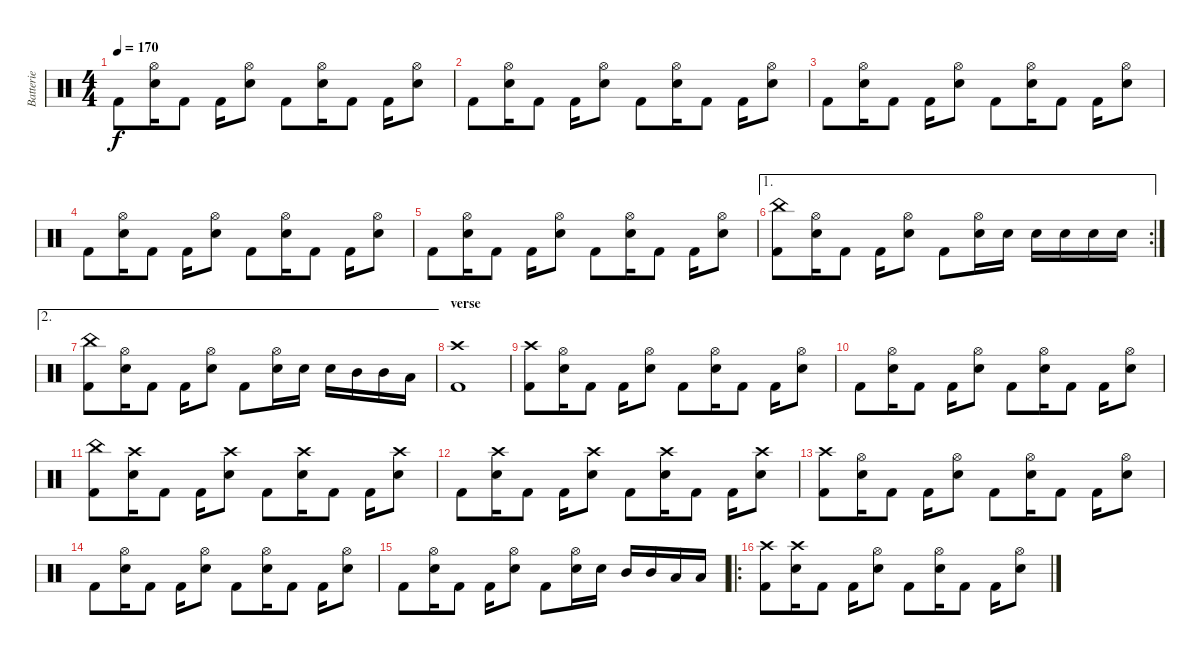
\track ("Batterie" "Batterie") {instrument percussion}
\staff {score}
\articulation defaults
\ts (4 4)
\tempo 170
\clef neutral
\ks c "Kick (hit) 2".8{dy f}
("Hi-Hat (open)" "Electric Snare (hit)").16 "Kick (hit) 2".8 "Kick (hit) 2".16 ("Hi-Hat (open)" "Electric Snare (hit)").8 "Kick (hit) 2".8 ("Hi-Hat (open)" "Electric Snare (hit)").16 "Kick (hit) 2".8 "Kick (hit) 2".16 ("Hi-Hat (open)" "Electric Snare (hit)").8 |
"Kick (hit) 2".8 ("Hi-Hat (open)" "Electric Snare (hit)").16 "Kick (hit) 2".8 "Kick (hit) 2".16 ("Hi-Hat (open)" "Electric Snare (hit)").8 "Kick (hit) 2".8 ("Hi-Hat (open)" "Electric Snare (hit)").16 "Kick (hit) 2".8 "Kick (hit) 2".16 ("Hi-Hat (open)" "Electric Snare (hit)").8 |
"Kick (hit) 2".8 ("Hi-Hat (open)" "Electric Snare (hit)").16 "Kick (hit) 2".8 "Kick (hit) 2".16 ("Hi-Hat (open)" "Electric Snare (hit)").8 "Kick (hit) 2".8 ("Hi-Hat (open)" "Electric Snare (hit)").16 "Kick (hit) 2".8 "Kick (hit) 2".16 ("Hi-Hat (open)" "Electric Snare (hit)").8 |
"Kick (hit) 2".8 ("Hi-Hat (open)" "Electric Snare (hit)").16 "Kick (hit) 2".8 "Kick (hit) 2".16 ("Hi-Hat (open)" "Electric Snare (hit)").8 "Kick (hit) 2".8 ("Hi-Hat (open)" "Electric Snare (hit)").16 "Kick (hit) 2".8 "Kick (hit) 2".16 ("Hi-Hat (open)" "Electric Snare (hit)").8 |
"Kick (hit) 2".8 ("Hi-Hat (open)" "Electric Snare (hit)").16 "Kick (hit) 2".8 "Kick (hit) 2".16 ("Hi-Hat (open)" "Electric Snare (hit)").8 "Kick (hit) 2".8 ("Hi-Hat (open)" "Electric Snare (hit)").16 "Kick (hit) 2".8 "Kick (hit) 2".16 ("Hi-Hat (open)" "Electric Snare (hit)").8 |
\ae 1
\rc 2
("China (hit)" "Kick (hit) 2").8 ("Hi-Hat (open)" "Electric Snare (hit)").16 "Kick (hit) 2".8 "Kick (hit) 2".16 ("Hi-Hat (open)" "Electric Snare (hit)").8 "Kick (hit) 2".8 ("Hi-Hat (open)" "Electric Snare (hit)").16 "Electric Snare (hit)".16 "Electric Snare (hit)".16 "Electric Snare (hit)".16 "Electric Snare (hit)".16 "Electric Snare (hit)".16 |
\ae 2
("China (hit)" "Kick (hit) 2").8 ("Hi-Hat (open)" "Electric Snare (hit)").16 "Kick (hit) 2".8 "Kick (hit) 2".16 ("Hi-Hat (open)" "Electric Snare (hit)").8 "Kick (hit) 2".8 ("Hi-Hat (open)" "Electric Snare (hit)").16 "Electric Snare (hit)".16 "Electric Snare (hit)".16 "Mid Tom (hit)".16 "Mid Tom (hit)".16 "Low Tom (hit)".16 |
\section ("" "verse")
("Crash high (hit)" "Kick (hit) 2").1 |
("Crash high (hit)" "Kick (hit) 2").8 ("Hi-Hat (open)" "Electric Snare (hit)").16 "Kick (hit) 2".8 "Kick (hit) 2".16 ("Hi-Hat (open)" "Electric Snare (hit)").8 "Kick (hit) 2".8 ("Hi-Hat (open)" "Electric Snare (hit)").16 "Kick (hit) 2".8 "Kick (hit) 2".16 ("Hi-Hat (open)" "Electric Snare (hit)").8 |
"Kick (hit) 2".8 ("Hi-Hat (open)" "Electric Snare (hit)").16 "Kick (hit) 2".8 "Kick (hit) 2".16 ("Hi-Hat (open)" "Electric Snare (hit)").8 "Kick (hit) 2".8 ("Hi-Hat (open)" "Electric Snare (hit)").16 "Kick (hit) 2".8 "Kick (hit) 2".16 ("Hi-Hat (open)" "Electric Snare (hit)").8 |
("China (hit)" "Kick (hit) 2").8 ("Crash high (hit)" "Electric Snare (hit)").16 "Kick (hit) 2".8 "Kick (hit) 2".16 ("Crash high (hit)" "Electric Snare (hit)").8 "Kick (hit) 2".8 ("Crash high (hit)" "Electric Snare (hit)").16 "Kick (hit) 2".8 "Kick (hit) 2".16 ("Crash high (hit)" "Electric Snare (hit)").8 |
"Kick (hit) 2".8 ("Crash high (hit)" "Electric Snare (hit)").16 "Kick (hit) 2".8 "Kick (hit) 2".16 ("Crash high (hit)" "Electric Snare (hit)").8 "Kick (hit) 2".8 ("Crash high (hit)" "Electric Snare (hit)").16 "Kick (hit) 2".8 "Kick (hit) 2".16 ("Crash high (hit)" "Electric Snare (hit)").8 |
("Crash high (hit)" "Kick (hit) 2").8 ("Hi-Hat (open)" "Electric Snare (hit)").16 "Kick (hit) 2".8 "Kick (hit) 2".16 ("Hi-Hat (open)" "Electric Snare (hit)").8 "Kick (hit) 2".8 ("Hi-Hat (open)" "Electric Snare (hit)").16 "Kick (hit) 2".8 "Kick (hit) 2".16 ("Hi-Hat (open)" "Electric Snare (hit)").8 |
"Kick (hit) 2".8 ("Hi-Hat (open)" "Electric Snare (hit)").16 "Kick (hit) 2".8 "Kick (hit) 2".16 ("Hi-Hat (open)" "Electric Snare (hit)").8 "Kick (hit) 2".8 ("Hi-Hat (open)" "Electric Snare (hit)").16 "Kick (hit) 2".8 "Kick (hit) 2".16 ("Hi-Hat (open)" "Electric Snare (hit)").8 |
"Kick (hit) 2".8 ("Hi-Hat (open)" "Electric Snare (hit)").16 "Kick (hit) 2".8 "Kick (hit) 2".16 ("Hi-Hat (open)" "Electric Snare (hit)").8 "Kick (hit) 2".8 ("Hi-Hat (open)" "Electric Snare (hit)").16 "Electric Snare (hit)".16 "Mid Tom (hit)".16 "Mid Tom (hit)".16 "Low Tom (hit)".16 "Low Tom (hit)".16 |
\ro
("Crash high (hit)" "Kick (hit) 2").8 ("Crash high (hit)" "Electric Snare (hit)").16 "Kick (hit) 2".8 "Kick (hit) 2".16 ("Hi-Hat (open)" "Electric Snare (hit)").8 "Kick (hit) 2".8 ("Hi-Hat (open)" "Electric Snare (hit)").16 "Kick (hit) 2".8 "Kick (hit) 2".16 ("Hi-Hat (open)" "Electric Snare (hit)").8
